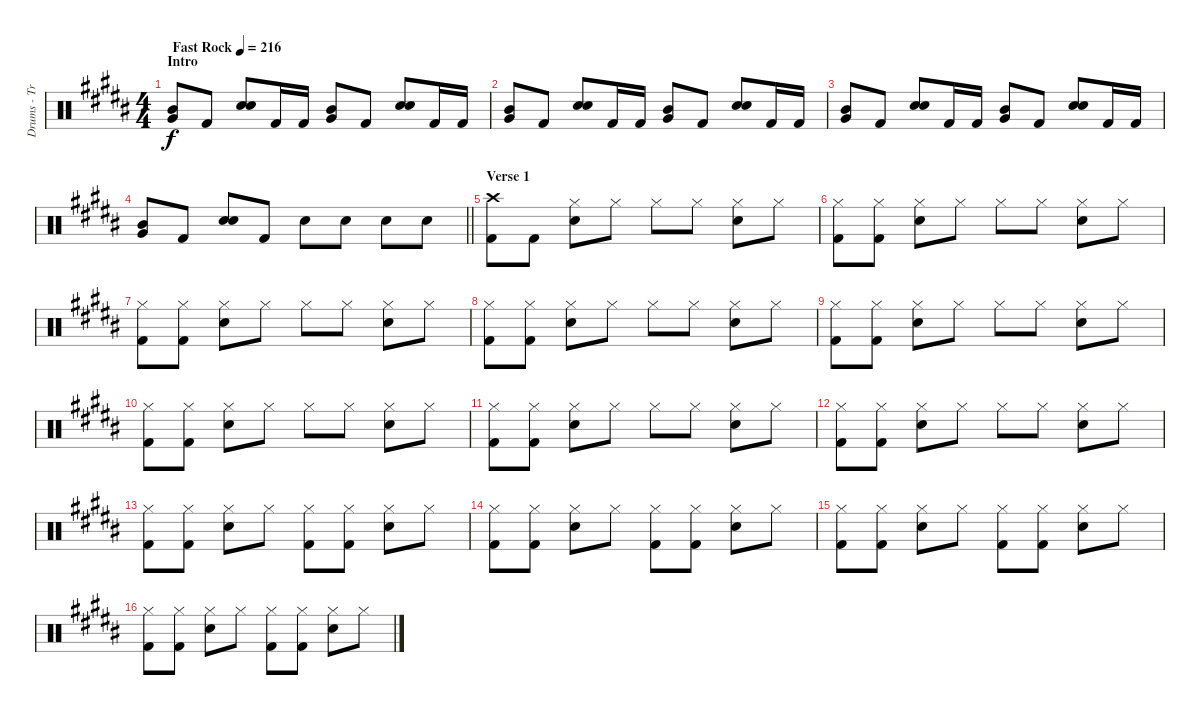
\track ("Drums - Travis Barker" "Drums - Tr") {instrument percussion}
\staff {score}
\articulation defaults
\ts (4 4)
\section ("" "Intro")
\tempo (216 "Fast Rock")
\clef neutral
\ks b
("Mid Tom (hit)" "Very Low Tom (hit)").8{dy f} "Kick (hit) 2".8 ("Snare (hit) 2" "Snare (hit) 2").8 "Kick (hit) 2".16 "Kick (hit) 2".16 ("Mid Tom (hit)" "Very Low Tom (hit)").8 "Kick (hit) 2".8 ("Snare (hit) 2" "Snare (hit) 2").8 "Kick (hit) 2".16 "Kick (hit) 2".16 |
("Mid Tom (hit)" "Very Low Tom (hit)").8 "Kick (hit) 2".8 ("Snare (hit) 2" "Snare (hit) 2").8 "Kick (hit) 2".16 "Kick (hit) 2".16 ("Mid Tom (hit)" "Very Low Tom (hit)").8 "Kick (hit) 2".8 ("Snare (hit) 2" "Snare (hit) 2").8 "Kick (hit) 2".16 "Kick (hit) 2".16 |
("Mid Tom (hit)" "Very Low Tom (hit)").8 "Kick (hit) 2".8 ("Snare (hit) 2" "Snare (hit) 2").8 "Kick (hit) 2".16 "Kick (hit) 2".16 ("Mid Tom (hit)" "Very Low Tom (hit)").8 "Kick (hit) 2".8 ("Snare (hit) 2" "Snare (hit) 2").8 "Kick (hit) 2".16 "Kick (hit) 2".16 |
\barLineRight lightlight
("Mid Tom (hit)" "Very Low Tom (hit)").8 "Kick (hit) 2".8 ("Snare (hit) 2" "Snare (hit) 2").8 "Kick (hit) 2".8 "Snare (hit) 2".8 "Snare (hit) 2".8 "Snare (hit) 2".8 "Snare (hit) 2".8 |
\section ("" "Verse 1")
("Kick (hit) 2" "Crash high (hit)").8 "Kick (hit) 2".8 ("Snare (hit) 2" "Hi-Hat (closed)").8 "Hi-Hat (closed)".8 "Hi-Hat (closed)".8 "Hi-Hat (closed)".8 ("Snare (hit) 2" "Hi-Hat (closed)").8 "Hi-Hat (closed)".8 |
("Kick (hit) 2" "Hi-Hat (closed)").8 ("Kick (hit) 2" "Hi-Hat (closed)").8 ("Snare (hit) 2" "Hi-Hat (closed)").8 "Hi-Hat (closed)".8 "Hi-Hat (closed)".8 "Hi-Hat (closed)".8 ("Snare (hit) 2" "Hi-Hat (closed)").8 "Hi-Hat (closed)".8 |
("Kick (hit) 2" "Hi-Hat (closed)").8 ("Kick (hit) 2" "Hi-Hat (closed)").8 ("Snare (hit) 2" "Hi-Hat (closed)").8 "Hi-Hat (closed)".8 "Hi-Hat (closed)".8 "Hi-Hat (closed)".8 ("Snare (hit) 2" "Hi-Hat (closed)").8 "Hi-Hat (closed)".8 |
("Kick (hit) 2" "Hi-Hat (closed)").8 ("Kick (hit) 2" "Hi-Hat (closed)").8 ("Snare (hit) 2" "Hi-Hat (closed)").8 "Hi-Hat (closed)".8 "Hi-Hat (closed)".8 "Hi-Hat (closed)".8 ("Snare (hit) 2" "Hi-Hat (closed)").8 "Hi-Hat (closed)".8 |
("Kick (hit) 2" "Hi-Hat (closed)").8 ("Kick (hit) 2" "Hi-Hat (closed)").8 ("Snare (hit) 2" "Hi-Hat (closed)").8 "Hi-Hat (closed)".8 "Hi-Hat (closed)".8 "Hi-Hat (closed)".8 ("Snare (hit) 2" "Hi-Hat (closed)").8 "Hi-Hat (closed)".8 |
("Kick (hit) 2" "Hi-Hat (closed)").8 ("Kick (hit) 2" "Hi-Hat (closed)").8 ("Snare (hit) 2" "Hi-Hat (closed)").8 "Hi-Hat (closed)".8 "Hi-Hat (closed)".8 "Hi-Hat (closed)".8 ("Snare (hit) 2" "Hi-Hat (closed)").8 "Hi-Hat (closed)".8 |
("Kick (hit) 2" "Hi-Hat (closed)").8 ("Kick (hit) 2" "Hi-Hat (closed)").8 ("Snare (hit) 2" "Hi-Hat (closed)").8 "Hi-Hat (closed)".8 "Hi-Hat (closed)".8 "Hi-Hat (closed)".8 ("Snare (hit) 2" "Hi-Hat (closed)").8 "Hi-Hat (closed)".8 |
("Kick (hit) 2" "Hi-Hat (closed)").8 ("Kick (hit) 2" "Hi-Hat (closed)").8 ("Snare (hit) 2" "Hi-Hat (closed)").8 "Hi-Hat (closed)".8 "Hi-Hat (closed)".8 "Hi-Hat (closed)".8 ("Snare (hit) 2" "Hi-Hat (closed)").8 "Hi-Hat (closed)".8 |
("Kick (hit) 2" "Hi-Hat (closed)").8 ("Kick (hit) 2" "Hi-Hat (closed)").8 ("Snare (hit) 2" "Hi-Hat (closed)").8 "Hi-Hat (closed)".8 ("Kick (hit) 2" "Hi-Hat (closed)").8 ("Kick (hit) 2" "Hi-Hat (closed)").8 ("Snare (hit) 2" "Hi-Hat (closed)").8 "Hi-Hat (closed)".8 |
("Kick (hit) 2" "Hi-Hat (closed)").8 ("Kick (hit) 2" "Hi-Hat (closed)").8 ("Snare (hit) 2" "Hi-Hat (closed)").8 "Hi-Hat (closed)".8 ("Kick (hit) 2" "Hi-Hat (closed)").8 ("Kick (hit) 2" "Hi-Hat (closed)").8 ("Snare (hit) 2" "Hi-Hat (closed)").8 "Hi-Hat (closed)".8 |
("Kick (hit) 2" "Hi-Hat (closed)").8 ("Kick (hit) 2" "Hi-Hat (closed)").8 ("Snare (hit) 2" "Hi-Hat (closed)").8 "Hi-Hat (closed)".8 ("Kick (hit) 2" "Hi-Hat (closed)").8 ("Kick (hit) 2" "Hi-Hat (closed)").8 ("Snare (hit) 2" "Hi-Hat (closed)").8 "Hi-Hat (closed)".8 |
("Kick (hit) 2" "Hi-Hat (closed)").8 ("Kick (hit) 2" "Hi-Hat (closed)").8 ("Snare (hit) 2" "Hi-Hat (closed)").8 "Hi-Hat (closed)".8 ("Kick (hit) 2" "Hi-Hat (closed)").8 ("Kick (hit) 2" "Hi-Hat (closed)").8 ("Snare (hit) 2" "Hi-Hat (closed)").8 "Hi-Hat (closed)".8
